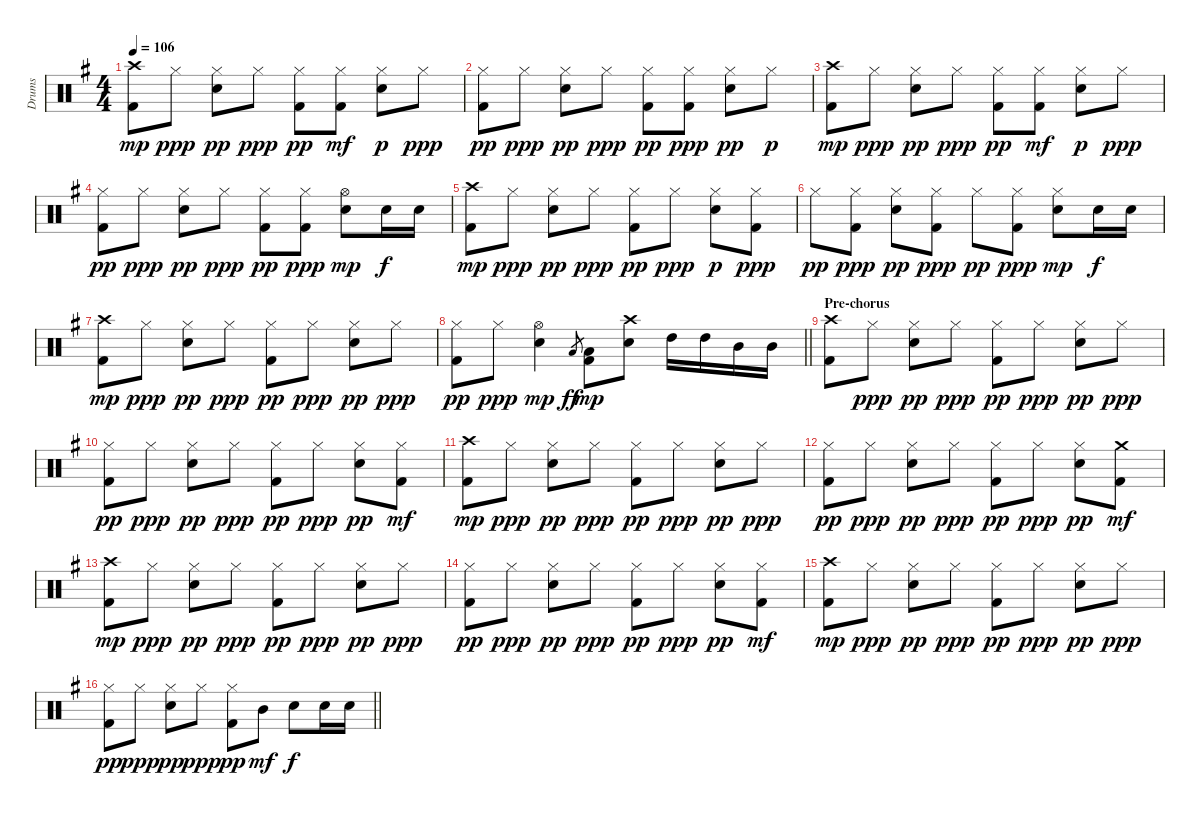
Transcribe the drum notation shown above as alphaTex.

\track ("Drums" "Drums") {instrument percussion}
\staff {score}
\articulation defaults
\ts (4 4)
\tempo 106
\clef neutral
\ks g
("Kick (hit) 2" "Crash high (hit)").8{dy mp} "Hi-Hat (closed)".8{dy ppp} ("Hi-Hat (closed)" "Electric Snare (hit)").8{dy pp} "Hi-Hat (closed)".8{dy ppp} ("Hi-Hat (closed)" "Kick (hit) 2").8{dy pp} ("Hi-Hat (closed)" "Kick (hit) 2").8{dy mf} ("Hi-Hat (closed)" "Electric Snare (hit)").8{dy p} "Hi-Hat (closed)".8{dy ppp} |
("Hi-Hat (closed)" "Kick (hit) 2").8{dy pp} "Hi-Hat (closed)".8{dy ppp} ("Hi-Hat (closed)" "Electric Snare (hit)").8{dy pp} "Hi-Hat (closed)".8{dy ppp} ("Hi-Hat (closed)" "Kick (hit) 2").8{dy pp} ("Hi-Hat (closed)" "Kick (hit) 2").8{dy ppp} ("Hi-Hat (closed)" "Electric Snare (hit)").8{dy pp} "Hi-Hat (closed)".8{dy p} |
("Kick (hit) 2" "Crash high (hit)").8{dy mp} "Hi-Hat (closed)".8{dy ppp} ("Hi-Hat (closed)" "Electric Snare (hit)").8{dy pp} "Hi-Hat (closed)".8{dy ppp} ("Hi-Hat (closed)" "Kick (hit) 2").8{dy pp} ("Hi-Hat (closed)" "Kick (hit) 2").8{dy mf} ("Hi-Hat (closed)" "Electric Snare (hit)").8{dy p} "Hi-Hat (closed)".8{dy ppp} |
("Hi-Hat (closed)" "Kick (hit) 2").8{dy pp} "Hi-Hat (closed)".8{dy ppp} ("Hi-Hat (closed)" "Electric Snare (hit)").8{dy pp} "Hi-Hat (closed)".8{dy ppp} ("Hi-Hat (closed)" "Kick (hit) 2").8{dy pp} ("Hi-Hat (closed)" "Kick (hit) 2").8{dy ppp} ("Hi-Hat (open)" "Electric Snare (hit)").8{dy mp} "Electric Snare (hit)".16{dy f} "Electric Snare (hit)".16 |
("Kick (hit) 2" "Crash high (hit)").8{dy mp} "Hi-Hat (closed)".8{dy ppp} ("Hi-Hat (closed)" "Electric Snare (hit)").8{dy pp} "Hi-Hat (closed)".8{dy ppp} ("Hi-Hat (closed)" "Kick (hit) 2").8{dy pp} "Hi-Hat (closed)".8{dy ppp} ("Hi-Hat (closed)" "Electric Snare (hit)").8{dy p} ("Hi-Hat (closed)" "Kick (hit) 2").8{dy ppp} |
"Hi-Hat (closed)".8{dy pp} ("Hi-Hat (closed)" "Kick (hit) 2").8{dy ppp} ("Hi-Hat (closed)" "Electric Snare (hit)").8{dy pp} ("Hi-Hat (closed)" "Kick (hit) 2").8{dy ppp} "Hi-Hat (closed)".8{dy pp} ("Hi-Hat (closed)" "Kick (hit) 2").8{dy ppp} ("Hi-Hat (closed)" "Electric Snare (hit)").8{dy mp} "Electric Snare (hit)".16{dy f} "Electric Snare (hit)".16 |
("Kick (hit) 2" "Crash high (hit)").8{dy mp} "Hi-Hat (closed)".8{dy ppp} ("Hi-Hat (closed)" "Electric Snare (hit)").8{dy pp} "Hi-Hat (closed)".8{dy ppp} ("Hi-Hat (closed)" "Kick (hit) 2").8{dy pp} "Hi-Hat (closed)".8{dy ppp} ("Hi-Hat (closed)" "Electric Snare (hit)").8{dy pp} "Hi-Hat (closed)".8{dy ppp} |
\barLineRight lightlight
("Hi-Hat (closed)" "Kick (hit) 2").8{dy pp} "Hi-Hat (closed)".8{dy ppp} ("Hi-Hat (open)" "Electric Snare (hit)").4{dy mp} "Low Tom (hit)".8{gr dy ff} ("Low Tom (hit)" "Kick (hit) 2").8{dy mp} ("Electric Snare (hit)" "Crash high (hit)").8 "High Tom (hit)".16 "High Tom (hit)".16 "Mid Tom (hit)".16 "Mid Tom (hit)".16 |
\section ("" "Pre-chorus")
("Kick (hit) 2" "Crash high (hit)").8 "Hi-Hat (closed)".8{dy ppp} ("Hi-Hat (closed)" "Electric Snare (hit)").8{dy pp} "Hi-Hat (closed)".8{dy ppp} ("Hi-Hat (closed)" "Kick (hit) 2").8{dy pp} "Hi-Hat (closed)".8{dy ppp} ("Hi-Hat (closed)" "Electric Snare (hit)").8{dy pp} "Hi-Hat (closed)".8{dy ppp} |
("Hi-Hat (closed)" "Kick (hit) 2").8{dy pp} "Hi-Hat (closed)".8{dy ppp} ("Hi-Hat (closed)" "Electric Snare (hit)").8{dy pp} "Hi-Hat (closed)".8{dy ppp} ("Hi-Hat (closed)" "Kick (hit) 2").8{dy pp} "Hi-Hat (closed)".8{dy ppp} ("Hi-Hat (closed)" "Electric Snare (hit)").8{dy pp} ("Hi-Hat (closed)" "Kick (hit) 2").8{dy mf} |
("Kick (hit) 2" "Crash high (hit)").8{dy mp} "Hi-Hat (closed)".8{dy ppp} ("Hi-Hat (closed)" "Electric Snare (hit)").8{dy pp} "Hi-Hat (closed)".8{dy ppp} ("Hi-Hat (closed)" "Kick (hit) 2").8{dy pp} "Hi-Hat (closed)".8{dy ppp} ("Hi-Hat (closed)" "Electric Snare (hit)").8{dy pp} "Hi-Hat (closed)".8{dy ppp} |
("Hi-Hat (closed)" "Kick (hit) 2").8{dy pp} "Hi-Hat (closed)".8{dy ppp} ("Hi-Hat (closed)" "Electric Snare (hit)").8{dy pp} "Hi-Hat (closed)".8{dy ppp} ("Hi-Hat (closed)" "Kick (hit) 2").8{dy pp} "Hi-Hat (closed)".8{dy ppp} ("Hi-Hat (closed)" "Electric Snare (hit)").8{dy pp} ("Crash medium (hit)" "Kick (hit) 2").8{dy mf} |
("Kick (hit) 2" "Crash high (hit)").8{dy mp} "Hi-Hat (closed)".8{dy ppp} ("Hi-Hat (closed)" "Electric Snare (hit)").8{dy pp} "Hi-Hat (closed)".8{dy ppp} ("Hi-Hat (closed)" "Kick (hit) 2").8{dy pp} "Hi-Hat (closed)".8{dy ppp} ("Hi-Hat (closed)" "Electric Snare (hit)").8{dy pp} "Hi-Hat (closed)".8{dy ppp} |
("Hi-Hat (closed)" "Kick (hit) 2").8{dy pp} "Hi-Hat (closed)".8{dy ppp} ("Hi-Hat (closed)" "Electric Snare (hit)").8{dy pp} "Hi-Hat (closed)".8{dy ppp} ("Hi-Hat (closed)" "Kick (hit) 2").8{dy pp} "Hi-Hat (closed)".8{dy ppp} ("Hi-Hat (closed)" "Electric Snare (hit)").8{dy pp} ("Hi-Hat (closed)" "Kick (hit) 2").8{dy mf} |
("Kick (hit) 2" "Crash high (hit)").8{dy mp} "Hi-Hat (closed)".8{dy ppp} ("Hi-Hat (closed)" "Electric Snare (hit)").8{dy pp} "Hi-Hat (closed)".8{dy ppp} ("Hi-Hat (closed)" "Kick (hit) 2").8{dy pp} "Hi-Hat (closed)".8{dy ppp} ("Hi-Hat (closed)" "Electric Snare (hit)").8{dy pp} "Hi-Hat (closed)".8{dy ppp} |
\barLineRight lightlight
("Hi-Hat (closed)" "Kick (hit) 2").8{dy pp} "Hi-Hat (closed)".8{dy ppp} ("Hi-Hat (closed)" "Electric Snare (hit)").8{dy pp} "Hi-Hat (closed)".8{dy ppp} ("Hi-Hat (closed)" "Kick (hit) 2").8{dy pp} "Mid Tom (hit)".8{dy mf} "Electric Snare (hit)".8{dy f} "Electric Snare (hit)".16 "Electric Snare (hit)".16
